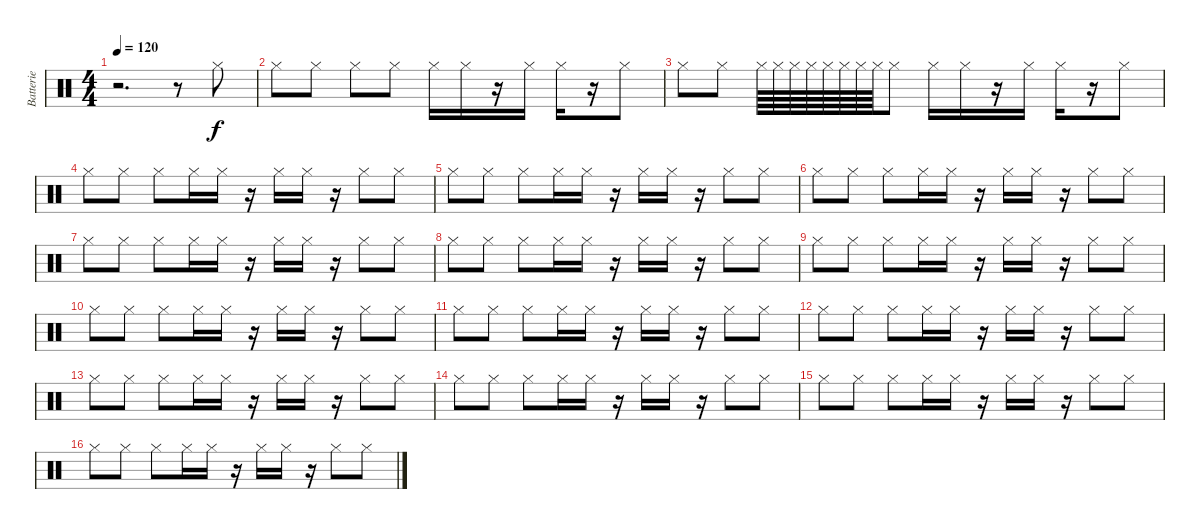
\track ("Batterie" "Batterie") {instrument percussion}
\staff {score}
\articulation defaults
\ts (4 4)
\tempo 120
\clef neutral
\ks c
r.2{d dy f} r.8 "Hi-Hat (closed)".8 |
"Hi-Hat (closed)".8 "Hi-Hat (closed)".8 "Hi-Hat (closed)".8 "Hi-Hat (closed)".8 "Hi-Hat (closed)".16 "Hi-Hat (closed)".16 r.16 "Hi-Hat (closed)".16 "Hi-Hat (closed)".16 r.16 "Hi-Hat (closed)".8 |
"Hi-Hat (closed)".8 "Hi-Hat (closed)".8 "Hi-Hat (closed)".64 "Hi-Hat (closed)".64 "Hi-Hat (closed)".64 "Hi-Hat (closed)".64 "Hi-Hat (closed)".64 "Hi-Hat (closed)".64 "Hi-Hat (closed)".64 "Hi-Hat (closed)".64 "Hi-Hat (closed)".8 "Hi-Hat (closed)".16 "Hi-Hat (closed)".16 r.16 "Hi-Hat (closed)".16 "Hi-Hat (closed)".16 r.16 "Hi-Hat (closed)".8 |
"Hi-Hat (closed)".8 "Hi-Hat (closed)".8 "Hi-Hat (closed)".8 "Hi-Hat (closed)".16 "Hi-Hat (closed)".16 r.16 "Hi-Hat (closed)".16 "Hi-Hat (closed)".16 r.16 "Hi-Hat (closed)".8 "Hi-Hat (closed)".8 |
"Hi-Hat (closed)".8 "Hi-Hat (closed)".8 "Hi-Hat (closed)".8 "Hi-Hat (closed)".16 "Hi-Hat (closed)".16 r.16 "Hi-Hat (closed)".16 "Hi-Hat (closed)".16 r.16 "Hi-Hat (closed)".8 "Hi-Hat (closed)".8 |
"Hi-Hat (closed)".8 "Hi-Hat (closed)".8 "Hi-Hat (closed)".8 "Hi-Hat (closed)".16 "Hi-Hat (closed)".16 r.16 "Hi-Hat (closed)".16 "Hi-Hat (closed)".16 r.16 "Hi-Hat (closed)".8 "Hi-Hat (closed)".8 |
"Hi-Hat (closed)".8 "Hi-Hat (closed)".8 "Hi-Hat (closed)".8 "Hi-Hat (closed)".16 "Hi-Hat (closed)".16 r.16 "Hi-Hat (closed)".16 "Hi-Hat (closed)".16 r.16 "Hi-Hat (closed)".8 "Hi-Hat (closed)".8 |
"Hi-Hat (closed)".8 "Hi-Hat (closed)".8 "Hi-Hat (closed)".8 "Hi-Hat (closed)".16 "Hi-Hat (closed)".16 r.16 "Hi-Hat (closed)".16 "Hi-Hat (closed)".16 r.16 "Hi-Hat (closed)".8 "Hi-Hat (closed)".8 |
"Hi-Hat (closed)".8 "Hi-Hat (closed)".8 "Hi-Hat (closed)".8 "Hi-Hat (closed)".16 "Hi-Hat (closed)".16 r.16 "Hi-Hat (closed)".16 "Hi-Hat (closed)".16 r.16 "Hi-Hat (closed)".8 "Hi-Hat (closed)".8 |
"Hi-Hat (closed)".8 "Hi-Hat (closed)".8 "Hi-Hat (closed)".8 "Hi-Hat (closed)".16 "Hi-Hat (closed)".16 r.16 "Hi-Hat (closed)".16 "Hi-Hat (closed)".16 r.16 "Hi-Hat (closed)".8 "Hi-Hat (closed)".8 |
"Hi-Hat (closed)".8 "Hi-Hat (closed)".8 "Hi-Hat (closed)".8 "Hi-Hat (closed)".16 "Hi-Hat (closed)".16 r.16 "Hi-Hat (closed)".16 "Hi-Hat (closed)".16 r.16 "Hi-Hat (closed)".8 "Hi-Hat (closed)".8 |
"Hi-Hat (closed)".8 "Hi-Hat (closed)".8 "Hi-Hat (closed)".8 "Hi-Hat (closed)".16 "Hi-Hat (closed)".16 r.16 "Hi-Hat (closed)".16 "Hi-Hat (closed)".16 r.16 "Hi-Hat (closed)".8 "Hi-Hat (closed)".8 |
"Hi-Hat (closed)".8 "Hi-Hat (closed)".8 "Hi-Hat (closed)".8 "Hi-Hat (closed)".16 "Hi-Hat (closed)".16 r.16 "Hi-Hat (closed)".16 "Hi-Hat (closed)".16 r.16 "Hi-Hat (closed)".8 "Hi-Hat (closed)".8 |
"Hi-Hat (closed)".8 "Hi-Hat (closed)".8 "Hi-Hat (closed)".8 "Hi-Hat (closed)".16 "Hi-Hat (closed)".16 r.16 "Hi-Hat (closed)".16 "Hi-Hat (closed)".16 r.16 "Hi-Hat (closed)".8 "Hi-Hat (closed)".8 |
"Hi-Hat (closed)".8 "Hi-Hat (closed)".8 "Hi-Hat (closed)".8 "Hi-Hat (closed)".16 "Hi-Hat (closed)".16 r.16 "Hi-Hat (closed)".16 "Hi-Hat (closed)".16 r.16 "Hi-Hat (closed)".8 "Hi-Hat (closed)".8 |
"Hi-Hat (closed)".8 "Hi-Hat (closed)".8 "Hi-Hat (closed)".8 "Hi-Hat (closed)".16 "Hi-Hat (closed)".16 r.16 "Hi-Hat (closed)".16 "Hi-Hat (closed)".16 r.16 "Hi-Hat (closed)".8 "Hi-Hat (closed)".8
